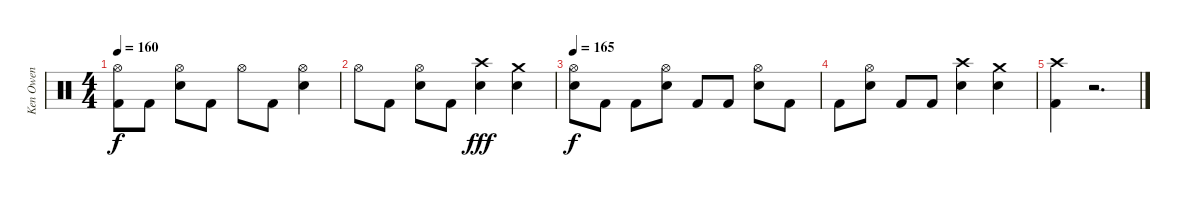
\track ("Ken Owen" "Ken Owen") {instrument percussion}
\staff {score}
\articulation defaults
\ts (4 4)
\tempo 160
\clef neutral
\ks c
("Hi-Hat (open)" "Kick (hit) 2").8{dy f} "Kick (hit) 2".8 ("Hi-Hat (open)" "Electric Snare (hit)").8 "Kick (hit) 2".8 "Hi-Hat (open)".8 "Kick (hit) 2".8 ("Hi-Hat (open)" "Electric Snare (hit)").4 |
"Hi-Hat (open)".8 "Kick (hit) 2".8 ("Hi-Hat (open)" "Electric Snare (hit)").8 "Kick (hit) 2".8 ("Crash high (hit)" "Electric Snare (hit)").4{dy fff} ("Crash medium (hit)" "Electric Snare (hit)").4 |
\tempo 165
("Hi-Hat (open)" "Electric Snare (hit)").8{dy f} "Kick (hit) 2".8 "Kick (hit) 2".8 ("Hi-Hat (open)" "Electric Snare (hit)").8 "Kick (hit) 2".8 "Kick (hit) 2".8 ("Hi-Hat (open)" "Electric Snare (hit)").8 "Kick (hit) 2".8 |
"Kick (hit) 2".8 ("Hi-Hat (open)" "Electric Snare (hit)").8 "Kick (hit) 2".8 "Kick (hit) 2".8 ("Crash high (hit)" "Electric Snare (hit)").4 ("Crash medium (hit)" "Electric Snare (hit)").4 |
("Crash high (hit)" "Kick (hit) 2").4 r.2{d}
